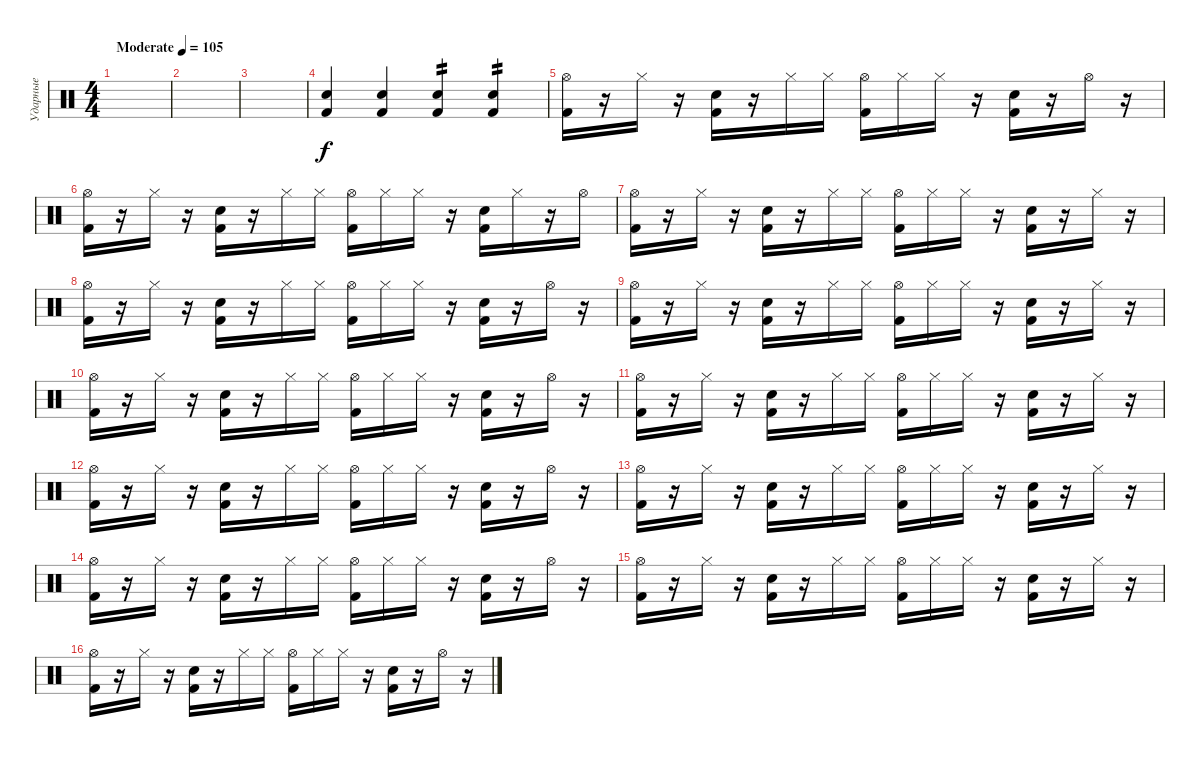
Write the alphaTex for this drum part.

\track ("Ударные" "Ударные") {instrument percussion}
\staff {score}
\articulation defaults
\ts (4 4)
\tempo (105 "Moderate")
\clef neutral
\ks c
|
|
|
("Kick (hit) 2" "Electric Snare (hit)").4 ("Kick (hit) 2" "Snare (hit) 2").4 ("Kick (hit) 2" "Electric Snare (hit)").4{tp 2} ("Kick (hit) 2" "Snare (hit) 2").4{tp 2} |
("Hi-Hat (open)" "Kick (hit) 2").16 r.16 "Hi-Hat (closed)".16 r.16 ("Snare (hit) 2" "Kick (hit) 2").16 r.16 "Hi-Hat (closed)".16 "Hi-Hat (closed)".16 ("Hi-Hat (open)" "Kick (hit) 2").16 "Hi-Hat (closed)".16 "Hi-Hat (closed)".16 r.16 ("Snare (hit) 2" "Kick (hit) 2").16 r.16 "Hi-Hat (open)".16 r.16 |
("Hi-Hat (open)" "Kick (hit) 2").16 r.16 "Hi-Hat (closed)".16 r.16 ("Snare (hit) 2" "Kick (hit) 2").16 r.16 "Hi-Hat (closed)".16 "Hi-Hat (closed)".16 ("Hi-Hat (open)" "Kick (hit) 2").16 "Hi-Hat (closed)".16 "Hi-Hat (closed)".16 r.16 ("Snare (hit) 2" "Kick (hit) 2").16 "Hi-Hat (closed)".16 r.16 "Hi-Hat (open)".16 |
("Hi-Hat (open)" "Kick (hit) 2").16 r.16 "Hi-Hat (closed)".16 r.16 ("Snare (hit) 2" "Kick (hit) 2").16 r.16 "Hi-Hat (closed)".16 "Hi-Hat (closed)".16 ("Hi-Hat (open)" "Kick (hit) 2").16 "Hi-Hat (closed)".16 "Hi-Hat (closed)".16 r.16 ("Snare (hit) 2" "Kick (hit) 2").16 r.16 "Hi-Hat (closed)".16 r.16 |
("Hi-Hat (open)" "Kick (hit) 2").16 r.16 "Hi-Hat (closed)".16 r.16 ("Snare (hit) 2" "Kick (hit) 2").16 r.16 "Hi-Hat (closed)".16 "Hi-Hat (closed)".16 ("Hi-Hat (open)" "Kick (hit) 2").16 "Hi-Hat (closed)".16 "Hi-Hat (closed)".16 r.16 ("Snare (hit) 2" "Kick (hit) 2").16 r.16 "Hi-Hat (open)".16 r.16 |
("Hi-Hat (open)" "Kick (hit) 2").16 r.16 "Hi-Hat (closed)".16 r.16 ("Snare (hit) 2" "Kick (hit) 2").16 r.16 "Hi-Hat (closed)".16 "Hi-Hat (closed)".16 ("Hi-Hat (open)" "Kick (hit) 2").16 "Hi-Hat (closed)".16 "Hi-Hat (closed)".16 r.16 ("Snare (hit) 2" "Kick (hit) 2").16 r.16 "Hi-Hat (closed)".16 r.16 |
("Hi-Hat (open)" "Kick (hit) 2").16 r.16 "Hi-Hat (closed)".16 r.16 ("Snare (hit) 2" "Kick (hit) 2").16 r.16 "Hi-Hat (closed)".16 "Hi-Hat (closed)".16 ("Hi-Hat (open)" "Kick (hit) 2").16 "Hi-Hat (closed)".16 "Hi-Hat (closed)".16 r.16 ("Snare (hit) 2" "Kick (hit) 2").16 r.16 "Hi-Hat (open)".16 r.16 |
("Hi-Hat (open)" "Kick (hit) 2").16 r.16 "Hi-Hat (closed)".16 r.16 ("Snare (hit) 2" "Kick (hit) 2").16 r.16 "Hi-Hat (closed)".16 "Hi-Hat (closed)".16 ("Hi-Hat (open)" "Kick (hit) 2").16 "Hi-Hat (closed)".16 "Hi-Hat (closed)".16 r.16 ("Snare (hit) 2" "Kick (hit) 2").16 r.16 "Hi-Hat (closed)".16 r.16 |
("Hi-Hat (open)" "Kick (hit) 2").16 r.16 "Hi-Hat (closed)".16 r.16 ("Snare (hit) 2" "Kick (hit) 2").16 r.16 "Hi-Hat (closed)".16 "Hi-Hat (closed)".16 ("Hi-Hat (open)" "Kick (hit) 2").16 "Hi-Hat (closed)".16 "Hi-Hat (closed)".16 r.16 ("Snare (hit) 2" "Kick (hit) 2").16 r.16 "Hi-Hat (open)".16 r.16 |
("Hi-Hat (open)" "Kick (hit) 2").16 r.16 "Hi-Hat (closed)".16 r.16 ("Snare (hit) 2" "Kick (hit) 2").16 r.16 "Hi-Hat (closed)".16 "Hi-Hat (closed)".16 ("Hi-Hat (open)" "Kick (hit) 2").16 "Hi-Hat (closed)".16 "Hi-Hat (closed)".16 r.16 ("Snare (hit) 2" "Kick (hit) 2").16 r.16 "Hi-Hat (closed)".16 r.16 |
("Hi-Hat (open)" "Kick (hit) 2").16 r.16 "Hi-Hat (closed)".16 r.16 ("Snare (hit) 2" "Kick (hit) 2").16 r.16 "Hi-Hat (closed)".16 "Hi-Hat (closed)".16 ("Hi-Hat (open)" "Kick (hit) 2").16 "Hi-Hat (closed)".16 "Hi-Hat (closed)".16 r.16 ("Snare (hit) 2" "Kick (hit) 2").16 r.16 "Hi-Hat (open)".16 r.16 |
("Hi-Hat (open)" "Kick (hit) 2").16 r.16 "Hi-Hat (closed)".16 r.16 ("Snare (hit) 2" "Kick (hit) 2").16 r.16 "Hi-Hat (closed)".16 "Hi-Hat (closed)".16 ("Hi-Hat (open)" "Kick (hit) 2").16 "Hi-Hat (closed)".16 "Hi-Hat (closed)".16 r.16 ("Snare (hit) 2" "Kick (hit) 2").16 r.16 "Hi-Hat (closed)".16 r.16 |
("Hi-Hat (open)" "Kick (hit) 2").16 r.16 "Hi-Hat (closed)".16 r.16 ("Snare (hit) 2" "Kick (hit) 2").16 r.16 "Hi-Hat (closed)".16 "Hi-Hat (closed)".16 ("Hi-Hat (open)" "Kick (hit) 2").16 "Hi-Hat (closed)".16 "Hi-Hat (closed)".16 r.16 ("Snare (hit) 2" "Kick (hit) 2").16 r.16 "Hi-Hat (open)".16 r.16
